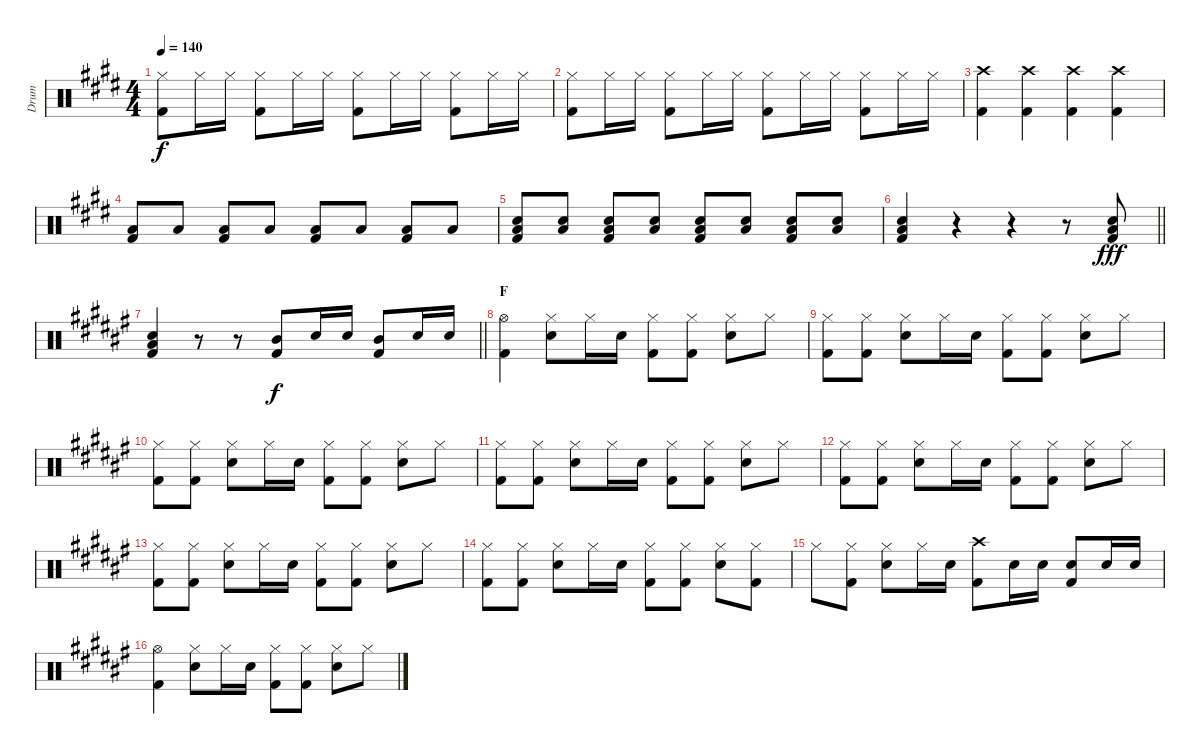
\track ("Drum" "Drum") {instrument percussion}
\staff {score}
\articulation defaults
\ts (4 4)
\tempo 140
\clef neutral
\ks c#minor
("Hi-Hat (closed)" "Kick (hit) 2").8{dy f} "Hi-Hat (closed)".16 "Hi-Hat (closed)".16 ("Hi-Hat (closed)" "Kick (hit) 2").8 "Hi-Hat (closed)".16 "Hi-Hat (closed)".16 ("Hi-Hat (closed)" "Kick (hit) 2").8 "Hi-Hat (closed)".16 "Hi-Hat (closed)".16 ("Hi-Hat (closed)" "Kick (hit) 2").8 "Hi-Hat (closed)".16 "Hi-Hat (closed)".16 |
("Hi-Hat (closed)" "Kick (hit) 2").8 "Hi-Hat (closed)".16 "Hi-Hat (closed)".16 ("Hi-Hat (closed)" "Kick (hit) 2").8 "Hi-Hat (closed)".16 "Hi-Hat (closed)".16 ("Hi-Hat (closed)" "Kick (hit) 2").8 "Hi-Hat (closed)".16 "Hi-Hat (closed)".16 ("Hi-Hat (closed)" "Kick (hit) 2").8 "Hi-Hat (closed)".16 "Hi-Hat (closed)".16 |
("Crash high (hit)" "Kick (hit) 2").4 ("Crash high (hit)" "Kick (hit) 2").4 ("Crash high (hit)" "Kick (hit) 2").4 ("Crash high (hit)" "Kick (hit) 2").4 |
("Low Floor Tom (hit)" "Kick (hit) 2").8 "Low Floor Tom (hit)".8 ("Low Floor Tom (hit)" "Kick (hit) 2").8 "Low Floor Tom (hit)".8 ("Low Floor Tom (hit)" "Kick (hit) 2").8 "Low Floor Tom (hit)".8 ("Low Floor Tom (hit)" "Kick (hit) 2").8 "Low Floor Tom (hit)".8 |
("Snare (hit) 2" "Low Floor Tom (hit)" "Kick (hit) 2").8 ("Snare (hit) 2" "Low Floor Tom (hit)").8 ("Snare (hit) 2" "Low Floor Tom (hit)" "Kick (hit) 2").8 ("Snare (hit) 2" "Low Floor Tom (hit)").8 ("Snare (hit) 2" "Low Floor Tom (hit)" "Kick (hit) 2").8 ("Snare (hit) 2" "Low Floor Tom (hit)").8 ("Snare (hit) 2" "Low Floor Tom (hit)" "Kick (hit) 2").8 ("Snare (hit) 2" "Low Floor Tom (hit)").8 |
\barLineRight lightlight
("Snare (hit) 2" "Low Floor Tom (hit)" "Kick (hit) 2").4 r.4 r.4 r.8 ("Snare (hit) 2" "Low Floor Tom (hit)" "Kick (hit) 2").8{dy fff} |
\barLineRight lightlight
\ks d#minor
("Snare (hit) 2" "Low Floor Tom (hit)" "Kick (hit) 2").4 r.8 r.8 ("Mid Tom (hit)" "Kick (hit) 2").8{dy f} "Snare (hit) 2".16 "Snare (hit) 2".16 ("Mid Tom (hit)" "Kick (hit) 2").8 "Snare (hit) 2".16 "Snare (hit) 2".16 |
\section ("" "F")
("Hi-Hat (open)" "Kick (hit) 2").4 ("Hi-Hat (closed)" "Snare (hit) 2").8 "Hi-Hat (closed)".16 "Snare (hit) 2".16 ("Hi-Hat (closed)" "Kick (hit) 2").8 ("Hi-Hat (closed)" "Kick (hit) 2").8 ("Hi-Hat (closed)" "Snare (hit) 2").8 "Hi-Hat (closed)".8 |
("Hi-Hat (closed)" "Kick (hit) 2").8 ("Hi-Hat (closed)" "Kick (hit) 2").8 ("Hi-Hat (closed)" "Snare (hit) 2").8 "Hi-Hat (closed)".16 "Snare (hit) 2".16 ("Hi-Hat (closed)" "Kick (hit) 2").8 ("Hi-Hat (closed)" "Kick (hit) 2").8 ("Hi-Hat (closed)" "Snare (hit) 2").8 "Hi-Hat (closed)".8 |
("Hi-Hat (closed)" "Kick (hit) 2").8 ("Hi-Hat (closed)" "Kick (hit) 2").8 ("Hi-Hat (closed)" "Snare (hit) 2").8 "Hi-Hat (closed)".16 "Snare (hit) 2".16 ("Hi-Hat (closed)" "Kick (hit) 2").8 ("Hi-Hat (closed)" "Kick (hit) 2").8 ("Hi-Hat (closed)" "Snare (hit) 2").8 "Hi-Hat (closed)".8 |
("Hi-Hat (closed)" "Kick (hit) 2").8 ("Hi-Hat (closed)" "Kick (hit) 2").8 ("Hi-Hat (closed)" "Snare (hit) 2").8 "Hi-Hat (closed)".16 "Snare (hit) 2".16 ("Hi-Hat (closed)" "Kick (hit) 2").8 ("Hi-Hat (closed)" "Kick (hit) 2").8 ("Hi-Hat (closed)" "Snare (hit) 2").8 "Hi-Hat (closed)".8 |
("Hi-Hat (closed)" "Kick (hit) 2").8 ("Hi-Hat (closed)" "Kick (hit) 2").8 ("Hi-Hat (closed)" "Snare (hit) 2").8 "Hi-Hat (closed)".16 "Snare (hit) 2".16 ("Hi-Hat (closed)" "Kick (hit) 2").8 ("Hi-Hat (closed)" "Kick (hit) 2").8 ("Hi-Hat (closed)" "Snare (hit) 2").8 "Hi-Hat (closed)".8 |
("Hi-Hat (closed)" "Kick (hit) 2").8 ("Hi-Hat (closed)" "Kick (hit) 2").8 ("Hi-Hat (closed)" "Snare (hit) 2").8 "Hi-Hat (closed)".16 "Snare (hit) 2".16 ("Hi-Hat (closed)" "Kick (hit) 2").8 ("Hi-Hat (closed)" "Kick (hit) 2").8 ("Hi-Hat (closed)" "Snare (hit) 2").8 "Hi-Hat (closed)".8 |
("Hi-Hat (closed)" "Kick (hit) 2").8 ("Hi-Hat (closed)" "Kick (hit) 2").8 ("Hi-Hat (closed)" "Snare (hit) 2").8 "Hi-Hat (closed)".16 "Snare (hit) 2".16 ("Hi-Hat (closed)" "Kick (hit) 2").8 ("Hi-Hat (closed)" "Kick (hit) 2").8 ("Hi-Hat (closed)" "Snare (hit) 2").8 ("Hi-Hat (closed)" "Kick (hit) 2").8 |
"Hi-Hat (closed)".8 ("Hi-Hat (closed)" "Kick (hit) 2").8 ("Hi-Hat (closed)" "Snare (hit) 2").8 "Hi-Hat (closed)".16 "Snare (hit) 2".16 ("Crash high (hit)" "Kick (hit) 2").8 "Snare (hit) 2".16 "Snare (hit) 2".16 ("Snare (hit) 2" "Kick (hit) 2").8 "Snare (hit) 2".16 "Snare (hit) 2".16 |
("Hi-Hat (open)" "Kick (hit) 2").4 ("Hi-Hat (closed)" "Snare (hit) 2").8 "Hi-Hat (closed)".16 "Snare (hit) 2".16 ("Hi-Hat (closed)" "Kick (hit) 2").8 ("Hi-Hat (closed)" "Kick (hit) 2").8 ("Hi-Hat (closed)" "Snare (hit) 2").8 "Hi-Hat (closed)".8
